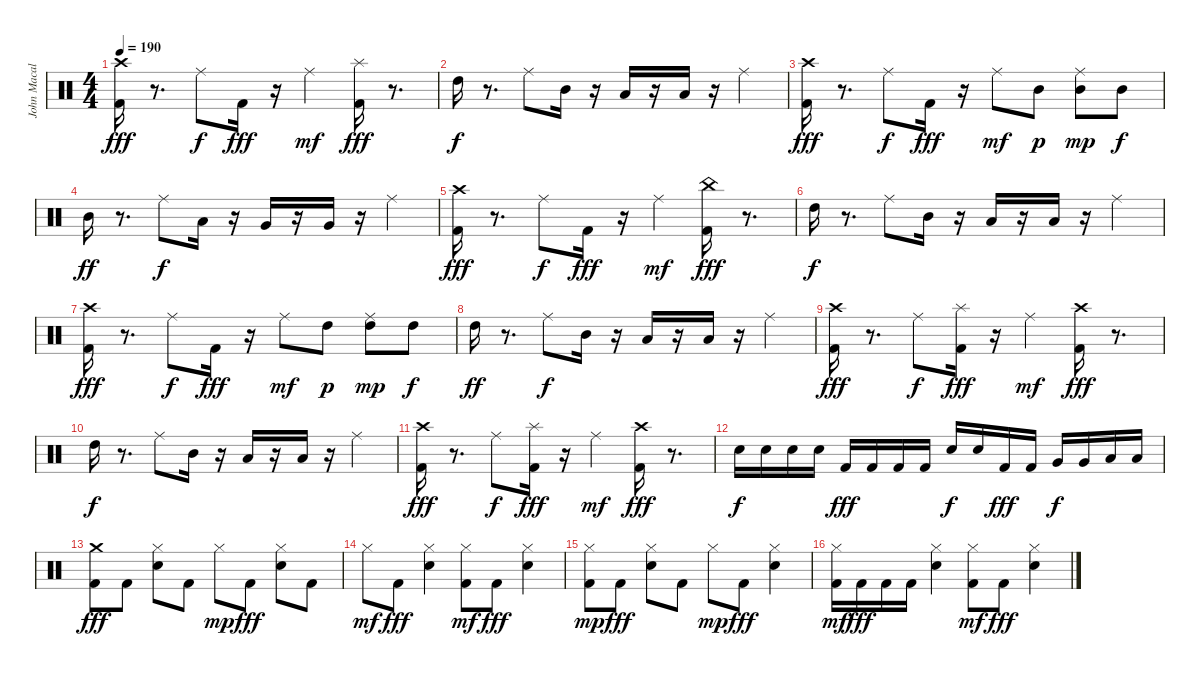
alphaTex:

\track ("John Macaluso drums" "John Macal") {instrument percussion}
\staff {score}
\articulation defaults
\ts (4 4)
\tempo 190
\clef neutral
\ks c
("Kick (hit) 2" "Crash high (hit)").16{dy fff} r.8{d} "Ride (middle)".8{dy f} "Kick (hit) 2".16{dy fff} r.16 "Ride (middle)".4{dy mf} ("Kick (hit) 2" "Splash (hit)").16{dy fff} r.8{d} |
"High Tom (hit)".16{dy f} r.8{d} "Ride (middle)".8 "Mid Tom (hit)".16 r.16 "Low Tom (hit)".16 r.16 "Low Tom (hit)".16 r.16 "Ride (middle)".4 |
("Kick (hit) 2" "Crash high (hit)").16{dy fff} r.8{d} "Ride (middle)".8{dy f} "Kick (hit) 2".16{dy fff} r.16 "Ride (middle)".8{dy mf} "Mid Tom (hit)".8{dy p} ("Mid Tom (hit)" "Ride (middle)").8{dy mp} "Mid Tom (hit)".8{dy f} |
"Mid Tom (hit)".16{dy ff} r.8{d} "Ride (middle)".8{dy f} "Low Tom (hit)".16 r.16 "Very Low Tom (hit)".16 r.16 "Very Low Tom (hit)".16 r.16 "Ride (middle)".4 |
("Kick (hit) 2" "Crash high (hit)").16{dy fff} r.8{d} "Ride (middle)".8{dy f} "Kick (hit) 2".16{dy fff} r.16 "Ride (middle)".4{dy mf} ("Kick (hit) 2" "China (hit)").16{dy fff} r.8{d} |
"High Tom (hit)".16{dy f} r.8{d} "Ride (middle)".8 "Mid Tom (hit)".16 r.16 "Low Tom (hit)".16 r.16 "Low Tom (hit)".16 r.16 "Ride (middle)".4 |
("Kick (hit) 2" "Crash high (hit)").16{dy fff} r.8{d} "Ride (middle)".8{dy f} "Kick (hit) 2".16{dy fff} r.16 "Ride (middle)".8{dy mf} "High Tom (hit)".8{dy p} ("High Tom (hit)" "Ride (middle)").8{dy mp} "High Tom (hit)".8{dy f} |
"High Tom (hit)".16{dy ff} r.8{d} "Ride (middle)".8{dy f} "Mid Tom (hit)".16 r.16 "Low Tom (hit)".16 r.16 "Low Tom (hit)".16 r.16 "Ride (middle)".4 |
("Kick (hit) 2" "Crash high (hit)").16{dy fff} r.8{d} "Ride (middle)".8{dy f} ("Kick (hit) 2" "Splash (hit)").16{dy fff} r.16 "Ride (middle)".4{dy mf} ("Kick (hit) 2" "Crash high (hit)").16{dy fff} r.8{d} |
"High Tom (hit)".16{dy f} r.8{d} "Ride (middle)".8 "Mid Tom (hit)".16 r.16 "Low Tom (hit)".16 r.16 "Low Tom (hit)".16 r.16 "Ride (middle)".4 |
("Kick (hit) 2" "Crash high (hit)").16{dy fff} r.8{d} "Ride (middle)".8{dy f} ("Kick (hit) 2" "Splash (hit)").16{dy fff} r.16 "Ride (middle)".4{dy mf} ("Kick (hit) 2" "Crash high (hit)").16{dy fff} r.8{d} |
"Electric Snare (hit)".16{dy f} "Electric Snare (hit)".16 "Electric Snare (hit)".16 "Electric Snare (hit)".16 "Kick (hit) 2".16{dy fff} "Kick (hit) 2".16 "Kick (hit) 2".16 "Kick (hit) 2".16 "Electric Snare (hit)".16{dy f} "Electric Snare (hit)".16 "Kick (hit) 2".16{dy fff} "Kick (hit) 2".16 "Very Low Tom (hit)".16{dy f} "Very Low Tom (hit)".16 "Low Floor Tom (hit)".16 "Low Floor Tom (hit)".16 |
("Kick (hit) 2" "Crash medium (hit)").8{dy fff} "Kick (hit) 2".8 ("Snare (hit) 2" "Hi-Hat (closed)").8 "Kick (hit) 2".8 "Hi-Hat (closed)".8{dy mp} "Kick (hit) 2".8{dy fff} ("Snare (hit) 2" "Hi-Hat (closed)").8 "Kick (hit) 2".8 |
"Hi-Hat (closed)".8{dy mf} "Kick (hit) 2".8{dy fff} ("Snare (hit) 2" "Hi-Hat (closed)").4 ("Kick (hit) 2" "Hi-Hat (closed)").8{dy mf} "Kick (hit) 2".8{dy fff} ("Snare (hit) 2" "Hi-Hat (closed)").4 |
("Kick (hit) 2" "Hi-Hat (closed)").8{dy mp} "Kick (hit) 2".8{dy fff} ("Snare (hit) 2" "Hi-Hat (closed)").8 "Kick (hit) 2".8 "Hi-Hat (closed)".8{dy mp} "Kick (hit) 2".8{dy fff} ("Snare (hit) 2" "Hi-Hat (closed)").4 |
("Kick (hit) 2" "Hi-Hat (closed)").16{dy mf} "Kick (hit) 2".16{dy fff} "Kick (hit) 2".16 "Kick (hit) 2".16 ("Snare (hit) 2" "Hi-Hat (closed)").4 ("Kick (hit) 2" "Hi-Hat (closed)").8{dy mf} "Kick (hit) 2".8{dy fff} ("Snare (hit) 2" "Hi-Hat (closed)").4
